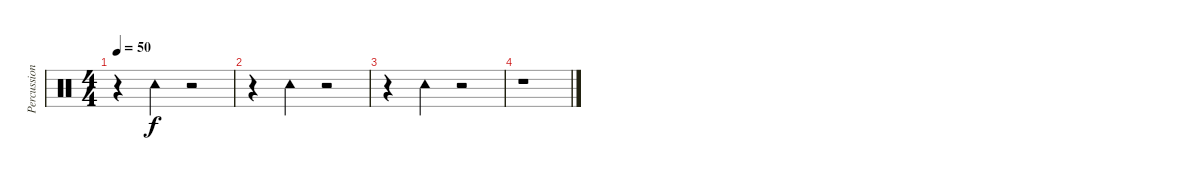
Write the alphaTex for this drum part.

\track ("Percussion" "Percussion") {instrument percussion}
\staff {score}
\articulation defaults
\ts (4 4)
\tempo 50
\clef neutral
\ks c
r.4{dy f} "Tambourine (hit)".4 r.2 |
r.4 "Tambourine (hit)".4 r.2 |
r.4 "Tambourine (hit)".4 r.2 |
r.1
